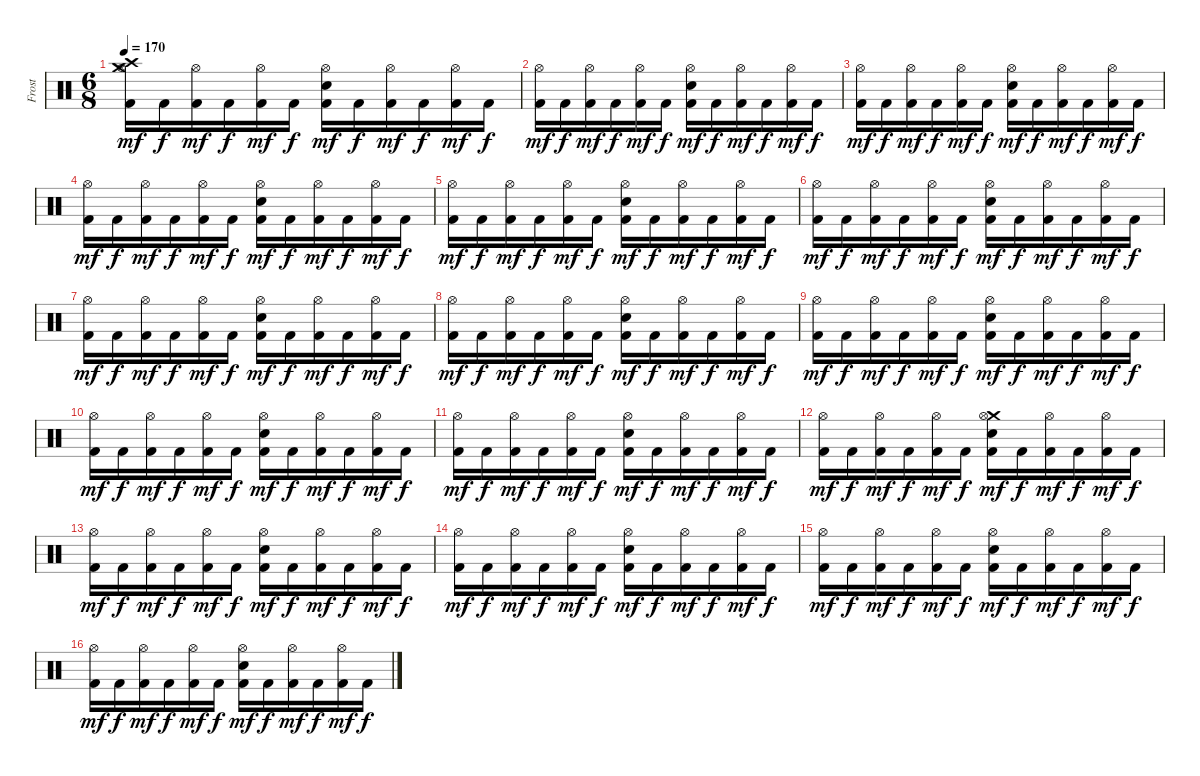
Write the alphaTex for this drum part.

\track ("Frost" "Frost") {instrument percussion}
\staff {score}
\articulation defaults
\ts (6 8)
\tempo 170
\clef neutral
\ks c
("Kick (hit) 2" "Crash high (hit)" "Crash medium (hit)" "Hi-Hat (open)").16{dy mf} "Kick (hit) 2".16{dy f} ("Kick (hit) 2" "Hi-Hat (open)").16{dy mf} "Kick (hit) 2".16{dy f} ("Kick (hit) 2" "Hi-Hat (open)").16{dy mf} "Kick (hit) 2".16{dy f} ("Kick (hit) 2" "Hi-Hat (open)" "Snare (hit) 2").16{dy mf} "Kick (hit) 2".16{dy f} ("Kick (hit) 2" "Hi-Hat (open)").16{dy mf} "Kick (hit) 2".16{dy f} ("Kick (hit) 2" "Hi-Hat (open)").16{dy mf} "Kick (hit) 2".16{dy f} |
("Kick (hit) 2" "Hi-Hat (open)").16{dy mf} "Kick (hit) 2".16{dy f} ("Kick (hit) 2" "Hi-Hat (open)").16{dy mf} "Kick (hit) 2".16{dy f} ("Kick (hit) 2" "Hi-Hat (open)").16{dy mf} "Kick (hit) 2".16{dy f} ("Kick (hit) 2" "Hi-Hat (open)" "Snare (hit) 2").16{dy mf} "Kick (hit) 2".16{dy f} ("Kick (hit) 2" "Hi-Hat (open)").16{dy mf} "Kick (hit) 2".16{dy f} ("Kick (hit) 2" "Hi-Hat (open)").16{dy mf} "Kick (hit) 2".16{dy f} |
("Kick (hit) 2" "Hi-Hat (open)").16{dy mf} "Kick (hit) 2".16{dy f} ("Kick (hit) 2" "Hi-Hat (open)").16{dy mf} "Kick (hit) 2".16{dy f} ("Kick (hit) 2" "Hi-Hat (open)").16{dy mf} "Kick (hit) 2".16{dy f} ("Kick (hit) 2" "Hi-Hat (open)" "Snare (hit) 2").16{dy mf} "Kick (hit) 2".16{dy f} ("Kick (hit) 2" "Hi-Hat (open)").16{dy mf} "Kick (hit) 2".16{dy f} ("Kick (hit) 2" "Hi-Hat (open)").16{dy mf} "Kick (hit) 2".16{dy f} |
("Kick (hit) 2" "Hi-Hat (open)").16{dy mf} "Kick (hit) 2".16{dy f} ("Kick (hit) 2" "Hi-Hat (open)").16{dy mf} "Kick (hit) 2".16{dy f} ("Kick (hit) 2" "Hi-Hat (open)").16{dy mf} "Kick (hit) 2".16{dy f} ("Kick (hit) 2" "Hi-Hat (open)" "Snare (hit) 2").16{dy mf} "Kick (hit) 2".16{dy f} ("Kick (hit) 2" "Hi-Hat (open)").16{dy mf} "Kick (hit) 2".16{dy f} ("Kick (hit) 2" "Hi-Hat (open)").16{dy mf} "Kick (hit) 2".16{dy f} |
("Kick (hit) 2" "Hi-Hat (open)").16{dy mf} "Kick (hit) 2".16{dy f} ("Kick (hit) 2" "Hi-Hat (open)").16{dy mf} "Kick (hit) 2".16{dy f} ("Kick (hit) 2" "Hi-Hat (open)").16{dy mf} "Kick (hit) 2".16{dy f} ("Kick (hit) 2" "Hi-Hat (open)" "Snare (hit) 2").16{dy mf} "Kick (hit) 2".16{dy f} ("Kick (hit) 2" "Hi-Hat (open)").16{dy mf} "Kick (hit) 2".16{dy f} ("Kick (hit) 2" "Hi-Hat (open)").16{dy mf} "Kick (hit) 2".16{dy f} |
("Kick (hit) 2" "Hi-Hat (open)").16{dy mf} "Kick (hit) 2".16{dy f} ("Kick (hit) 2" "Hi-Hat (open)").16{dy mf} "Kick (hit) 2".16{dy f} ("Kick (hit) 2" "Hi-Hat (open)").16{dy mf} "Kick (hit) 2".16{dy f} ("Kick (hit) 2" "Hi-Hat (open)" "Snare (hit) 2").16{dy mf} "Kick (hit) 2".16{dy f} ("Kick (hit) 2" "Hi-Hat (open)").16{dy mf} "Kick (hit) 2".16{dy f} ("Kick (hit) 2" "Hi-Hat (open)").16{dy mf} "Kick (hit) 2".16{dy f} |
("Kick (hit) 2" "Hi-Hat (open)").16{dy mf} "Kick (hit) 2".16{dy f} ("Kick (hit) 2" "Hi-Hat (open)").16{dy mf} "Kick (hit) 2".16{dy f} ("Kick (hit) 2" "Hi-Hat (open)").16{dy mf} "Kick (hit) 2".16{dy f} ("Kick (hit) 2" "Hi-Hat (open)" "Snare (hit) 2").16{dy mf} "Kick (hit) 2".16{dy f} ("Kick (hit) 2" "Hi-Hat (open)").16{dy mf} "Kick (hit) 2".16{dy f} ("Kick (hit) 2" "Hi-Hat (open)").16{dy mf} "Kick (hit) 2".16{dy f} |
("Kick (hit) 2" "Hi-Hat (open)").16{dy mf} "Kick (hit) 2".16{dy f} ("Kick (hit) 2" "Hi-Hat (open)").16{dy mf} "Kick (hit) 2".16{dy f} ("Kick (hit) 2" "Hi-Hat (open)").16{dy mf} "Kick (hit) 2".16{dy f} ("Kick (hit) 2" "Hi-Hat (open)" "Snare (hit) 2").16{dy mf} "Kick (hit) 2".16{dy f} ("Kick (hit) 2" "Hi-Hat (open)").16{dy mf} "Kick (hit) 2".16{dy f} ("Kick (hit) 2" "Hi-Hat (open)").16{dy mf} "Kick (hit) 2".16{dy f} |
("Kick (hit) 2" "Hi-Hat (open)").16{dy mf} "Kick (hit) 2".16{dy f} ("Kick (hit) 2" "Hi-Hat (open)").16{dy mf} "Kick (hit) 2".16{dy f} ("Kick (hit) 2" "Hi-Hat (open)").16{dy mf} "Kick (hit) 2".16{dy f} ("Kick (hit) 2" "Hi-Hat (open)" "Snare (hit) 2").16{dy mf} "Kick (hit) 2".16{dy f} ("Kick (hit) 2" "Hi-Hat (open)").16{dy mf} "Kick (hit) 2".16{dy f} ("Kick (hit) 2" "Hi-Hat (open)").16{dy mf} "Kick (hit) 2".16{dy f} |
("Kick (hit) 2" "Hi-Hat (open)").16{dy mf} "Kick (hit) 2".16{dy f} ("Kick (hit) 2" "Hi-Hat (open)").16{dy mf} "Kick (hit) 2".16{dy f} ("Kick (hit) 2" "Hi-Hat (open)").16{dy mf} "Kick (hit) 2".16{dy f} ("Kick (hit) 2" "Hi-Hat (open)" "Snare (hit) 2").16{dy mf} "Kick (hit) 2".16{dy f} ("Kick (hit) 2" "Hi-Hat (open)").16{dy mf} "Kick (hit) 2".16{dy f} ("Kick (hit) 2" "Hi-Hat (open)").16{dy mf} "Kick (hit) 2".16{dy f} |
("Kick (hit) 2" "Hi-Hat (open)").16{dy mf} "Kick (hit) 2".16{dy f} ("Kick (hit) 2" "Hi-Hat (open)").16{dy mf} "Kick (hit) 2".16{dy f} ("Kick (hit) 2" "Hi-Hat (open)").16{dy mf} "Kick (hit) 2".16{dy f} ("Kick (hit) 2" "Hi-Hat (open)" "Snare (hit) 2").16{dy mf} "Kick (hit) 2".16{dy f} ("Kick (hit) 2" "Hi-Hat (open)").16{dy mf} "Kick (hit) 2".16{dy f} ("Kick (hit) 2" "Hi-Hat (open)").16{dy mf} "Kick (hit) 2".16{dy f} |
("Kick (hit) 2" "Hi-Hat (open)").16{dy mf} "Kick (hit) 2".16{dy f} ("Kick (hit) 2" "Hi-Hat (open)").16{dy mf} "Kick (hit) 2".16{dy f} ("Kick (hit) 2" "Hi-Hat (open)").16{dy mf} "Kick (hit) 2".16{dy f} ("Kick (hit) 2" "Crash medium (hit)" "Hi-Hat (open)" "Snare (hit) 2").16{dy mf} "Kick (hit) 2".16{dy f} ("Kick (hit) 2" "Hi-Hat (open)").16{dy mf} "Kick (hit) 2".16{dy f} ("Kick (hit) 2" "Hi-Hat (open)").16{dy mf} "Kick (hit) 2".16{dy f} |
("Kick (hit) 2" "Hi-Hat (open)").16{dy mf} "Kick (hit) 2".16{dy f} ("Kick (hit) 2" "Hi-Hat (open)").16{dy mf} "Kick (hit) 2".16{dy f} ("Kick (hit) 2" "Hi-Hat (open)").16{dy mf} "Kick (hit) 2".16{dy f} ("Kick (hit) 2" "Hi-Hat (open)" "Snare (hit) 2").16{dy mf} "Kick (hit) 2".16{dy f} ("Kick (hit) 2" "Hi-Hat (open)").16{dy mf} "Kick (hit) 2".16{dy f} ("Kick (hit) 2" "Hi-Hat (open)").16{dy mf} "Kick (hit) 2".16{dy f} |
("Kick (hit) 2" "Hi-Hat (open)").16{dy mf} "Kick (hit) 2".16{dy f} ("Kick (hit) 2" "Hi-Hat (open)").16{dy mf} "Kick (hit) 2".16{dy f} ("Kick (hit) 2" "Hi-Hat (open)").16{dy mf} "Kick (hit) 2".16{dy f} ("Kick (hit) 2" "Hi-Hat (open)" "Snare (hit) 2").16{dy mf} "Kick (hit) 2".16{dy f} ("Kick (hit) 2" "Hi-Hat (open)").16{dy mf} "Kick (hit) 2".16{dy f} ("Kick (hit) 2" "Hi-Hat (open)").16{dy mf} "Kick (hit) 2".16{dy f} |
("Kick (hit) 2" "Hi-Hat (open)").16{dy mf} "Kick (hit) 2".16{dy f} ("Kick (hit) 2" "Hi-Hat (open)").16{dy mf} "Kick (hit) 2".16{dy f} ("Kick (hit) 2" "Hi-Hat (open)").16{dy mf} "Kick (hit) 2".16{dy f} ("Kick (hit) 2" "Hi-Hat (open)" "Snare (hit) 2").16{dy mf} "Kick (hit) 2".16{dy f} ("Kick (hit) 2" "Hi-Hat (open)").16{dy mf} "Kick (hit) 2".16{dy f} ("Kick (hit) 2" "Hi-Hat (open)").16{dy mf} "Kick (hit) 2".16{dy f} |
("Kick (hit) 2" "Hi-Hat (open)").16{dy mf} "Kick (hit) 2".16{dy f} ("Kick (hit) 2" "Hi-Hat (open)").16{dy mf} "Kick (hit) 2".16{dy f} ("Kick (hit) 2" "Hi-Hat (open)").16{dy mf} "Kick (hit) 2".16{dy f} ("Kick (hit) 2" "Hi-Hat (open)" "Snare (hit) 2").16{dy mf} "Kick (hit) 2".16{dy f} ("Kick (hit) 2" "Hi-Hat (open)").16{dy mf} "Kick (hit) 2".16{dy f} ("Kick (hit) 2" "Hi-Hat (open)").16{dy mf} "Kick (hit) 2".16{dy f}
